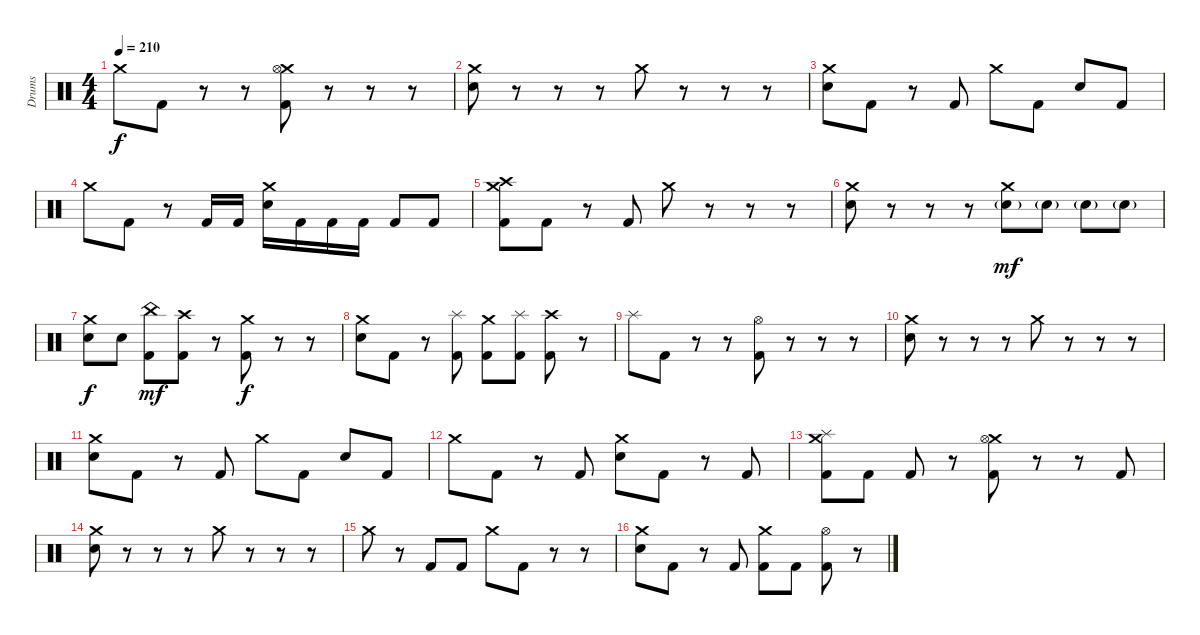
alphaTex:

\track ("Drums" "Drums") {instrument percussion}
\staff {score}
\articulation defaults
\ts (4 4)
\tempo 210
\clef neutral
\ks c "Crash medium (hit)".8{dy f} "Kick (hit) 2".8
r.8 r.8 ("Crash medium (hit)" "Hi-Hat (open)" "Kick (hit) 2").8 r.8 r.8 r.8 |
("Crash medium (hit)" "Electric Snare (hit)").8 r.8 r.8 r.8 "Crash medium (hit)".8 r.8 r.8 r.8 |
("Crash medium (hit)" "Electric Snare (hit)").8 "Kick (hit) 2".8 r.8 "Kick (hit) 2".8 "Crash medium (hit)".8 "Kick (hit) 2".8 "Electric Snare (hit)".8 "Kick (hit) 2".8 |
"Crash medium (hit)".8 "Kick (hit) 2".8 r.8 "Kick (hit) 2".16 "Kick (hit) 2".16 ("Crash medium (hit)" "Electric Snare (hit)").16 "Kick (hit) 2".16 "Kick (hit) 2".16 "Kick (hit) 2".16 "Kick (hit) 2".8 "Kick (hit) 2".8 |
("Crash high (hit)" "Crash medium (hit)" "Kick (hit) 2").8 "Kick (hit) 2".8 r.8 "Kick (hit) 2".8 "Crash medium (hit)".8 r.8 r.8 r.8 |
("Crash medium (hit)" "Electric Snare (hit)").8 r.8 r.8 r.8 ("Crash medium (hit)" "Electric Snare (hit)"{g}).8{dy mf} "Electric Snare (hit)"{g}.8 "Electric Snare (hit)"{g}.8 "Electric Snare (hit)"{g}.8 |
("Crash medium (hit)" "Electric Snare (hit)").8{dy f} "Electric Snare (hit)".8 ("China (hit)" "Kick (hit) 2").8{dy mf} ("Crash high (hit)" "Kick (hit) 2").8 r.8 ("Crash medium (hit)" "Kick (hit) 2").8{dy f} r.8 r.8 |
("Crash medium (hit)" "Electric Snare (hit)").8 "Kick (hit) 2".8 r.8 ("Splash (hit)" "Kick (hit) 2").8 ("Crash medium (hit)" "Kick (hit) 2").8 ("Splash (hit)" "Kick (hit) 2").8 ("Crash high (hit)" "Kick (hit) 2").8 r.8 |
"Splash (hit)".8 "Kick (hit) 2".8 r.8 r.8 ("Hi-Hat (open)" "Kick (hit) 2").8 r.8 r.8 r.8 |
("Crash medium (hit)" "Electric Snare (hit)").8 r.8 r.8 r.8 "Crash medium (hit)".8 r.8 r.8 r.8 |
("Crash medium (hit)" "Electric Snare (hit)").8 "Kick (hit) 2".8 r.8 "Kick (hit) 2".8 "Crash medium (hit)".8 "Kick (hit) 2".8 "Electric Snare (hit)".8 "Kick (hit) 2".8 |
"Crash medium (hit)".8 "Kick (hit) 2".8 r.8 "Kick (hit) 2".8 ("Crash medium (hit)" "Electric Snare (hit)").8 "Kick (hit) 2".8 r.8 "Kick (hit) 2".8 |
("Crash medium (hit)" "Splash (hit)" "Kick (hit) 2").8 "Kick (hit) 2".8 "Kick (hit) 2".8 r.8 ("Crash medium (hit)" "Hi-Hat (open)" "Kick (hit) 2").8 r.8 r.8 "Kick (hit) 2".8 |
("Crash medium (hit)" "Electric Snare (hit)").8 r.8 r.8 r.8 "Crash medium (hit)".8 r.8 r.8 r.8 |
"Crash medium (hit)".8 r.8 "Kick (hit) 2".8 "Kick (hit) 2".8 "Crash medium (hit)".8 "Kick (hit) 2".8 r.8 r.8 |
("Crash medium (hit)" "Electric Snare (hit)").8 "Kick (hit) 2".8 r.8 "Kick (hit) 2".8 ("Crash medium (hit)" "Kick (hit) 2").8 "Kick (hit) 2".8 ("Hi-Hat (open)" "Kick (hit) 2").8 r.8
